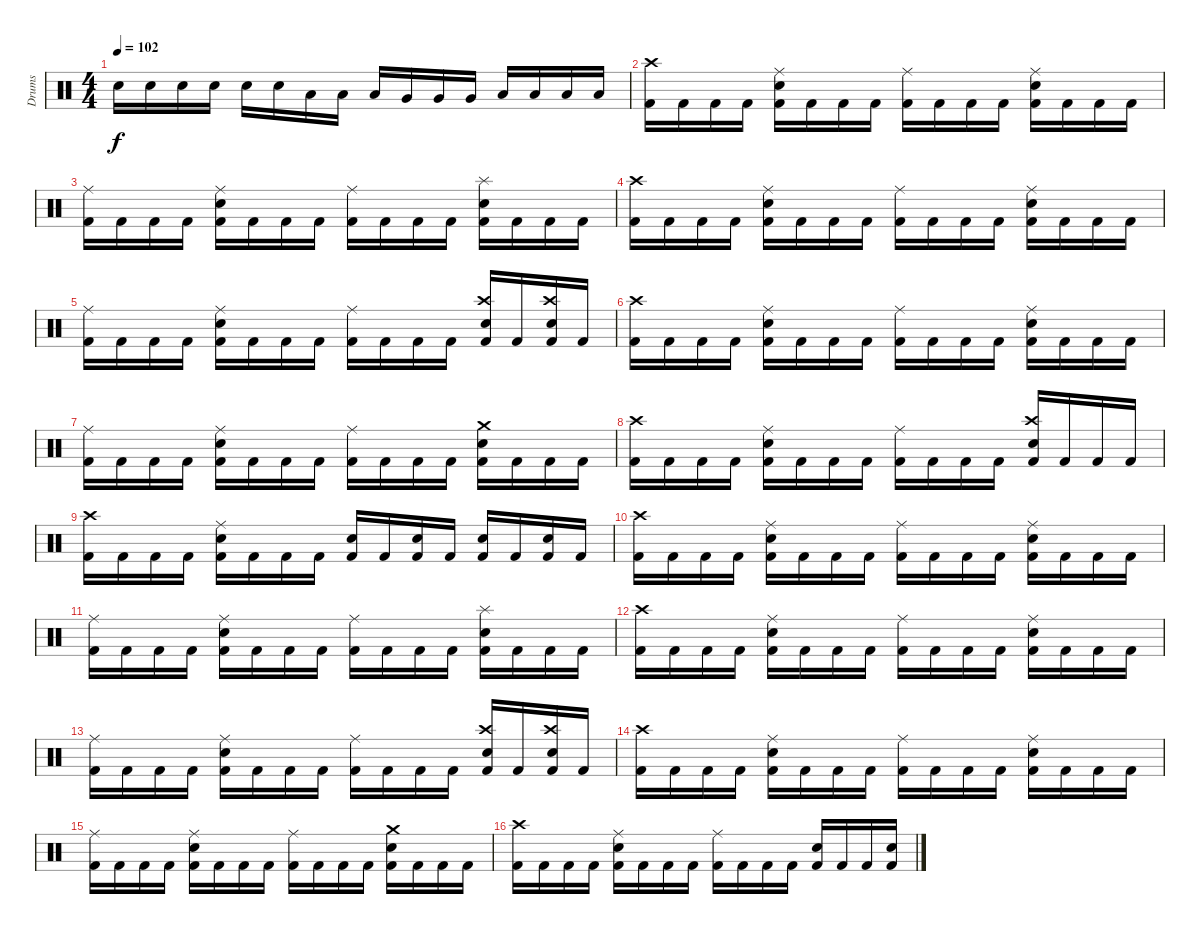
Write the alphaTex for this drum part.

\track ("Drums" "Drums") {instrument percussion}
\staff {score}
\articulation defaults
\ts (4 4)
\tempo 102
\clef neutral
\ks c "Snare (hit) 2".16{dy f} "Snare (hit) 2".16 "Snare (hit) 2".16 "Snare (hit) 2".16 "Snare (hit) 2".16 "Snare (hit) 2".16 "Low Tom (hit)".16 "Low Tom (hit)".16 "Low Tom (hit)".16 "Very Low Tom (hit)".16 "Very Low Tom (hit)".16 "Very Low Tom (hit)".16 "Low Floor Tom (hit)".16 "Low Floor Tom (hit)".16 "Low Floor Tom (hit)".16 "Low Floor Tom (hit)".16
|
("Crash high (hit)" "Kick (hit) 2").16 "Kick (hit) 2".16 "Kick (hit) 2".16 "Kick (hit) 2".16 ("Ride (middle)" "Snare (hit) 2" "Kick (hit) 2").16 "Kick (hit) 2".16 "Kick (hit) 2".16 "Kick (hit) 2".16 ("Ride (middle)" "Kick (hit) 2").16 "Kick (hit) 2".16 "Kick (hit) 2".16 "Kick (hit) 2".16 ("Ride (middle)" "Snare (hit) 2" "Kick (hit) 2").16 "Kick (hit) 2".16 "Kick (hit) 2".16 "Kick (hit) 2".16 |
("Ride (middle)" "Kick (hit) 2").16 "Kick (hit) 2".16 "Kick (hit) 2".16 "Kick (hit) 2".16 ("Ride (middle)" "Snare (hit) 2" "Kick (hit) 2").16 "Kick (hit) 2".16 "Kick (hit) 2".16 "Kick (hit) 2".16 ("Ride (middle)" "Kick (hit) 2").16 "Kick (hit) 2".16 "Kick (hit) 2".16 "Kick (hit) 2".16 ("Splash (hit)" "Snare (hit) 2" "Kick (hit) 2").16 "Kick (hit) 2".16 "Kick (hit) 2".16 "Kick (hit) 2".16 |
("Crash high (hit)" "Kick (hit) 2").16 "Kick (hit) 2".16 "Kick (hit) 2".16 "Kick (hit) 2".16 ("Ride (middle)" "Snare (hit) 2" "Kick (hit) 2").16 "Kick (hit) 2".16 "Kick (hit) 2".16 "Kick (hit) 2".16 ("Ride (middle)" "Kick (hit) 2").16 "Kick (hit) 2".16 "Kick (hit) 2".16 "Kick (hit) 2".16 ("Ride (middle)" "Snare (hit) 2" "Kick (hit) 2").16 "Kick (hit) 2".16 "Kick (hit) 2".16 "Kick (hit) 2".16 |
("Ride (middle)" "Kick (hit) 2").16 "Kick (hit) 2".16 "Kick (hit) 2".16 "Kick (hit) 2".16 ("Ride (middle)" "Snare (hit) 2" "Kick (hit) 2").16 "Kick (hit) 2".16 "Kick (hit) 2".16 "Kick (hit) 2".16 ("Ride (middle)" "Kick (hit) 2").16 "Kick (hit) 2".16 "Kick (hit) 2".16 "Kick (hit) 2".16 ("Crash high (hit)" "Snare (hit) 2" "Kick (hit) 2").16 "Kick (hit) 2".16 ("Crash high (hit)" "Snare (hit) 2" "Kick (hit) 2").16 "Kick (hit) 2".16 |
("Crash high (hit)" "Kick (hit) 2").16 "Kick (hit) 2".16 "Kick (hit) 2".16 "Kick (hit) 2".16 ("Ride (middle)" "Snare (hit) 2" "Kick (hit) 2").16 "Kick (hit) 2".16 "Kick (hit) 2".16 "Kick (hit) 2".16 ("Ride (middle)" "Kick (hit) 2").16 "Kick (hit) 2".16 "Kick (hit) 2".16 "Kick (hit) 2".16 ("Ride (middle)" "Snare (hit) 2" "Kick (hit) 2").16 "Kick (hit) 2".16 "Kick (hit) 2".16 "Kick (hit) 2".16 |
("Ride (middle)" "Kick (hit) 2").16 "Kick (hit) 2".16 "Kick (hit) 2".16 "Kick (hit) 2".16 ("Ride (middle)" "Snare (hit) 2" "Kick (hit) 2").16 "Kick (hit) 2".16 "Kick (hit) 2".16 "Kick (hit) 2".16 ("Ride (middle)" "Kick (hit) 2").16 "Kick (hit) 2".16 "Kick (hit) 2".16 "Kick (hit) 2".16 ("Crash medium (hit)" "Snare (hit) 2" "Kick (hit) 2").16 "Kick (hit) 2".16 "Kick (hit) 2".16 "Kick (hit) 2".16 |
("Crash high (hit)" "Kick (hit) 2").16 "Kick (hit) 2".16 "Kick (hit) 2".16 "Kick (hit) 2".16 ("Ride (middle)" "Snare (hit) 2" "Kick (hit) 2").16 "Kick (hit) 2".16 "Kick (hit) 2".16 "Kick (hit) 2".16 ("Ride (middle)" "Kick (hit) 2").16 "Kick (hit) 2".16 "Kick (hit) 2".16 "Kick (hit) 2".16 ("Crash high (hit)" "Snare (hit) 2" "Kick (hit) 2").16 "Kick (hit) 2".16 "Kick (hit) 2".16 "Kick (hit) 2".16 |
("Crash high (hit)" "Kick (hit) 2").16 "Kick (hit) 2".16 "Kick (hit) 2".16 "Kick (hit) 2".16 ("Ride (middle)" "Snare (hit) 2" "Kick (hit) 2").16 "Kick (hit) 2".16 "Kick (hit) 2".16 "Kick (hit) 2".16 ("Snare (hit) 2" "Kick (hit) 2").16 "Kick (hit) 2".16 ("Snare (hit) 2" "Kick (hit) 2").16 "Kick (hit) 2".16 ("Snare (hit) 2" "Kick (hit) 2").16 "Kick (hit) 2".16 ("Snare (hit) 2" "Kick (hit) 2").16 "Kick (hit) 2".16 |
("Crash high (hit)" "Kick (hit) 2").16 "Kick (hit) 2".16 "Kick (hit) 2".16 "Kick (hit) 2".16 ("Ride (middle)" "Snare (hit) 2" "Kick (hit) 2").16 "Kick (hit) 2".16 "Kick (hit) 2".16 "Kick (hit) 2".16 ("Ride (middle)" "Kick (hit) 2").16 "Kick (hit) 2".16 "Kick (hit) 2".16 "Kick (hit) 2".16 ("Ride (middle)" "Snare (hit) 2" "Kick (hit) 2").16 "Kick (hit) 2".16 "Kick (hit) 2".16 "Kick (hit) 2".16 |
("Ride (middle)" "Kick (hit) 2").16 "Kick (hit) 2".16 "Kick (hit) 2".16 "Kick (hit) 2".16 ("Ride (middle)" "Snare (hit) 2" "Kick (hit) 2").16 "Kick (hit) 2".16 "Kick (hit) 2".16 "Kick (hit) 2".16 ("Ride (middle)" "Kick (hit) 2").16 "Kick (hit) 2".16 "Kick (hit) 2".16 "Kick (hit) 2".16 ("Splash (hit)" "Snare (hit) 2" "Kick (hit) 2").16 "Kick (hit) 2".16 "Kick (hit) 2".16 "Kick (hit) 2".16 |
("Crash high (hit)" "Kick (hit) 2").16 "Kick (hit) 2".16 "Kick (hit) 2".16 "Kick (hit) 2".16 ("Ride (middle)" "Snare (hit) 2" "Kick (hit) 2").16 "Kick (hit) 2".16 "Kick (hit) 2".16 "Kick (hit) 2".16 ("Ride (middle)" "Kick (hit) 2").16 "Kick (hit) 2".16 "Kick (hit) 2".16 "Kick (hit) 2".16 ("Ride (middle)" "Snare (hit) 2" "Kick (hit) 2").16 "Kick (hit) 2".16 "Kick (hit) 2".16 "Kick (hit) 2".16 |
("Ride (middle)" "Kick (hit) 2").16 "Kick (hit) 2".16 "Kick (hit) 2".16 "Kick (hit) 2".16 ("Ride (middle)" "Snare (hit) 2" "Kick (hit) 2").16 "Kick (hit) 2".16 "Kick (hit) 2".16 "Kick (hit) 2".16 ("Ride (middle)" "Kick (hit) 2").16 "Kick (hit) 2".16 "Kick (hit) 2".16 "Kick (hit) 2".16 ("Crash high (hit)" "Snare (hit) 2" "Kick (hit) 2").16 "Kick (hit) 2".16 ("Crash high (hit)" "Snare (hit) 2" "Kick (hit) 2").16 "Kick (hit) 2".16 |
("Crash high (hit)" "Kick (hit) 2").16 "Kick (hit) 2".16 "Kick (hit) 2".16 "Kick (hit) 2".16 ("Ride (middle)" "Snare (hit) 2" "Kick (hit) 2").16 "Kick (hit) 2".16 "Kick (hit) 2".16 "Kick (hit) 2".16 ("Ride (middle)" "Kick (hit) 2").16 "Kick (hit) 2".16 "Kick (hit) 2".16 "Kick (hit) 2".16 ("Ride (middle)" "Snare (hit) 2" "Kick (hit) 2").16 "Kick (hit) 2".16 "Kick (hit) 2".16 "Kick (hit) 2".16 |
("Ride (middle)" "Kick (hit) 2").16 "Kick (hit) 2".16 "Kick (hit) 2".16 "Kick (hit) 2".16 ("Ride (middle)" "Snare (hit) 2" "Kick (hit) 2").16 "Kick (hit) 2".16 "Kick (hit) 2".16 "Kick (hit) 2".16 ("Ride (middle)" "Kick (hit) 2").16 "Kick (hit) 2".16 "Kick (hit) 2".16 "Kick (hit) 2".16 ("Crash medium (hit)" "Snare (hit) 2" "Kick (hit) 2").16 "Kick (hit) 2".16 "Kick (hit) 2".16 "Kick (hit) 2".16 |
("Crash high (hit)" "Kick (hit) 2").16 "Kick (hit) 2".16 "Kick (hit) 2".16 "Kick (hit) 2".16 ("Ride (middle)" "Snare (hit) 2" "Kick (hit) 2").16 "Kick (hit) 2".16 "Kick (hit) 2".16 "Kick (hit) 2".16 ("Ride (middle)" "Kick (hit) 2").16 "Kick (hit) 2".16 "Kick (hit) 2".16 "Kick (hit) 2".16 ("Snare (hit) 2" "Kick (hit) 2").16 "Kick (hit) 2".16 "Kick (hit) 2".16 ("Snare (hit) 2" "Kick (hit) 2").16
